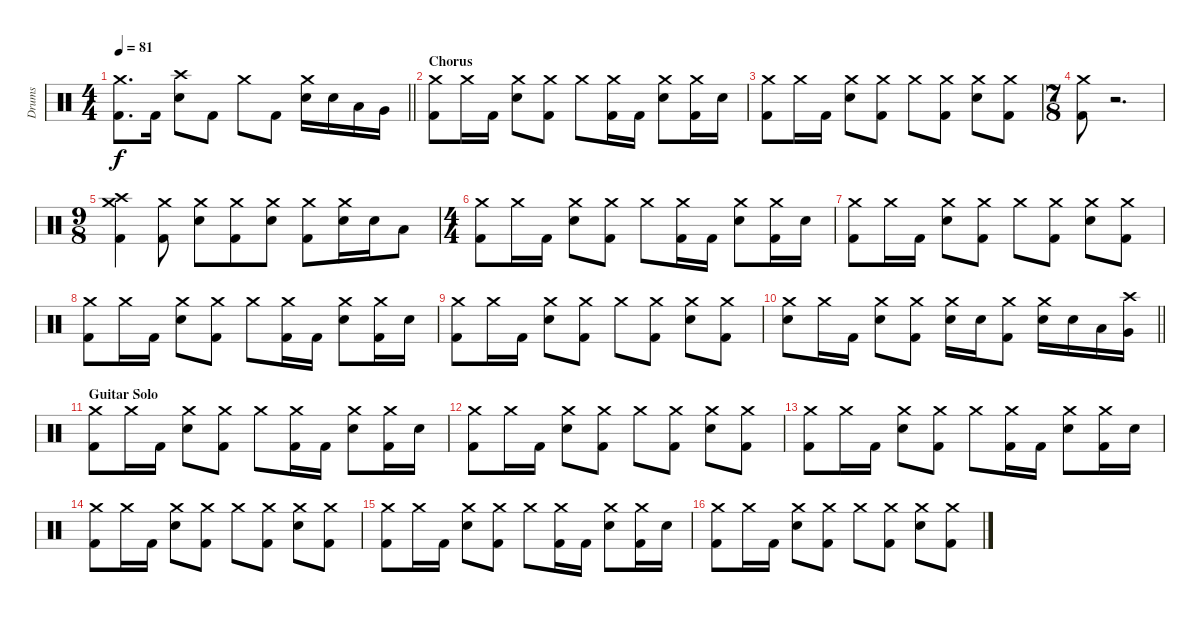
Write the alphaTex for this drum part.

\track ("Drums" "Drums") {instrument percussion}
\staff {score}
\articulation defaults
\ts (4 4)
\tempo 81
\clef neutral
\barLineRight lightlight
\ks c
("Kick (hit) 2" "Crash medium (hit)").8{d dy f} "Kick (hit) 2".16 ("Electric Snare (hit)" "Crash high (hit)").8 "Kick (hit) 2".8 "Crash medium (hit)".8 "Kick (hit) 2".8 ("Electric Snare (hit)" "Crash medium (hit)").16 "Electric Snare (hit)".16 "Low Tom (hit)".16 "Very Low Tom (hit)".16 |
\section ("" "Chorus")
("Kick (hit) 2" "Crash medium (hit)").8 "Crash medium (hit)".16 "Kick (hit) 2".16 ("Electric Snare (hit)" "Crash medium (hit)").8 ("Kick (hit) 2" "Crash medium (hit)").8 "Crash medium (hit)".8 ("Kick (hit) 2" "Crash medium (hit)").16 "Kick (hit) 2".16 ("Electric Snare (hit)" "Crash medium (hit)").8 ("Kick (hit) 2" "Crash medium (hit)").16 "Electric Snare (hit)".16 |
("Kick (hit) 2" "Crash medium (hit)").8 "Crash medium (hit)".16 "Kick (hit) 2".16 ("Electric Snare (hit)" "Crash medium (hit)").8 ("Kick (hit) 2" "Crash medium (hit)").8 "Crash medium (hit)".8 ("Kick (hit) 2" "Crash medium (hit)").8 ("Electric Snare (hit)" "Crash medium (hit)").8 ("Kick (hit) 2" "Crash medium (hit)").8 |
\ts (7 8)
("Kick (hit) 2" "Crash medium (hit)").8 r.2{d} |
\ts (9 8)
("Kick (hit) 2" "Crash high (hit)" "Crash medium (hit)").4 ("Kick (hit) 2" "Crash medium (hit)").8 ("Electric Snare (hit)" "Crash medium (hit)").8 ("Kick (hit) 2" "Crash medium (hit)").8 ("Electric Snare (hit)" "Crash medium (hit)").8 ("Kick (hit) 2" "Crash medium (hit)").8 ("Electric Snare (hit)" "Crash medium (hit)").16 "Electric Snare (hit)".16 "Low Tom (hit)".8 |
\ts (4 4)
("Kick (hit) 2" "Crash medium (hit)").8 "Crash medium (hit)".16 "Kick (hit) 2".16 ("Electric Snare (hit)" "Crash medium (hit)").8 ("Kick (hit) 2" "Crash medium (hit)").8 "Crash medium (hit)".8 ("Kick (hit) 2" "Crash medium (hit)").16 "Kick (hit) 2".16 ("Electric Snare (hit)" "Crash medium (hit)").8 ("Kick (hit) 2" "Crash medium (hit)").16 "Electric Snare (hit)".16 |
("Kick (hit) 2" "Crash medium (hit)").8 "Crash medium (hit)".16 "Kick (hit) 2".16 ("Electric Snare (hit)" "Crash medium (hit)").8 ("Kick (hit) 2" "Crash medium (hit)").8 "Crash medium (hit)".8 ("Kick (hit) 2" "Crash medium (hit)").8 ("Electric Snare (hit)" "Crash medium (hit)").8 ("Kick (hit) 2" "Crash medium (hit)").8 |
("Kick (hit) 2" "Crash medium (hit)").8 "Crash medium (hit)".16 "Kick (hit) 2".16 ("Electric Snare (hit)" "Crash medium (hit)").8 ("Kick (hit) 2" "Crash medium (hit)").8 "Crash medium (hit)".8 ("Kick (hit) 2" "Crash medium (hit)").16 "Kick (hit) 2".16 ("Electric Snare (hit)" "Crash medium (hit)").8 ("Kick (hit) 2" "Crash medium (hit)").16 "Electric Snare (hit)".16 |
("Kick (hit) 2" "Crash medium (hit)").8 "Crash medium (hit)".16 "Kick (hit) 2".16 ("Electric Snare (hit)" "Crash medium (hit)").8 ("Kick (hit) 2" "Crash medium (hit)").8 "Crash medium (hit)".8 ("Kick (hit) 2" "Crash medium (hit)").8 ("Electric Snare (hit)" "Crash medium (hit)").8 ("Kick (hit) 2" "Crash medium (hit)").8 |
\barLineRight lightlight
("Electric Snare (hit)" "Crash medium (hit)").8 "Crash medium (hit)".16 "Kick (hit) 2".16 ("Electric Snare (hit)" "Crash medium (hit)").8 ("Kick (hit) 2" "Crash medium (hit)").8 ("Electric Snare (hit)" "Crash medium (hit)").16 "Electric Snare (hit)".16 ("Kick (hit) 2" "Crash medium (hit)").8 ("Electric Snare (hit)" "Crash medium (hit)").16 "Electric Snare (hit)".16 "Low Tom (hit)".16 ("Very Low Tom (hit)" "Crash high (hit)").16 |
\section ("" "Guitar Solo")
("Kick (hit) 2" "Crash medium (hit)").8 "Crash medium (hit)".16 "Kick (hit) 2".16 ("Electric Snare (hit)" "Crash medium (hit)").8 ("Kick (hit) 2" "Crash medium (hit)").8 "Crash medium (hit)".8 ("Kick (hit) 2" "Crash medium (hit)").16 "Kick (hit) 2".16 ("Electric Snare (hit)" "Crash medium (hit)").8 ("Kick (hit) 2" "Crash medium (hit)").16 "Electric Snare (hit)".16 |
("Kick (hit) 2" "Crash medium (hit)").8 "Crash medium (hit)".16 "Kick (hit) 2".16 ("Electric Snare (hit)" "Crash medium (hit)").8 ("Kick (hit) 2" "Crash medium (hit)").8 "Crash medium (hit)".8 ("Kick (hit) 2" "Crash medium (hit)").8 ("Electric Snare (hit)" "Crash medium (hit)").8 ("Kick (hit) 2" "Crash medium (hit)").8 |
("Kick (hit) 2" "Crash medium (hit)").8 "Crash medium (hit)".16 "Kick (hit) 2".16 ("Electric Snare (hit)" "Crash medium (hit)").8 ("Kick (hit) 2" "Crash medium (hit)").8 "Crash medium (hit)".8 ("Kick (hit) 2" "Crash medium (hit)").16 "Kick (hit) 2".16 ("Electric Snare (hit)" "Crash medium (hit)").8 ("Kick (hit) 2" "Crash medium (hit)").16 "Electric Snare (hit)".16 |
("Kick (hit) 2" "Crash medium (hit)").8 "Crash medium (hit)".16 "Kick (hit) 2".16 ("Electric Snare (hit)" "Crash medium (hit)").8 ("Kick (hit) 2" "Crash medium (hit)").8 "Crash medium (hit)".8 ("Kick (hit) 2" "Crash medium (hit)").8 ("Electric Snare (hit)" "Crash medium (hit)").8 ("Kick (hit) 2" "Crash medium (hit)").8 |
("Kick (hit) 2" "Crash medium (hit)").8 "Crash medium (hit)".16 "Kick (hit) 2".16 ("Electric Snare (hit)" "Crash medium (hit)").8 ("Kick (hit) 2" "Crash medium (hit)").8 "Crash medium (hit)".8 ("Kick (hit) 2" "Crash medium (hit)").16 "Kick (hit) 2".16 ("Electric Snare (hit)" "Crash medium (hit)").8 ("Kick (hit) 2" "Crash medium (hit)").16 "Electric Snare (hit)".16 |
("Kick (hit) 2" "Crash medium (hit)").8 "Crash medium (hit)".16 "Kick (hit) 2".16 ("Electric Snare (hit)" "Crash medium (hit)").8 ("Kick (hit) 2" "Crash medium (hit)").8 "Crash medium (hit)".8 ("Kick (hit) 2" "Crash medium (hit)").8 ("Electric Snare (hit)" "Crash medium (hit)").8 ("Kick (hit) 2" "Crash medium (hit)").8
